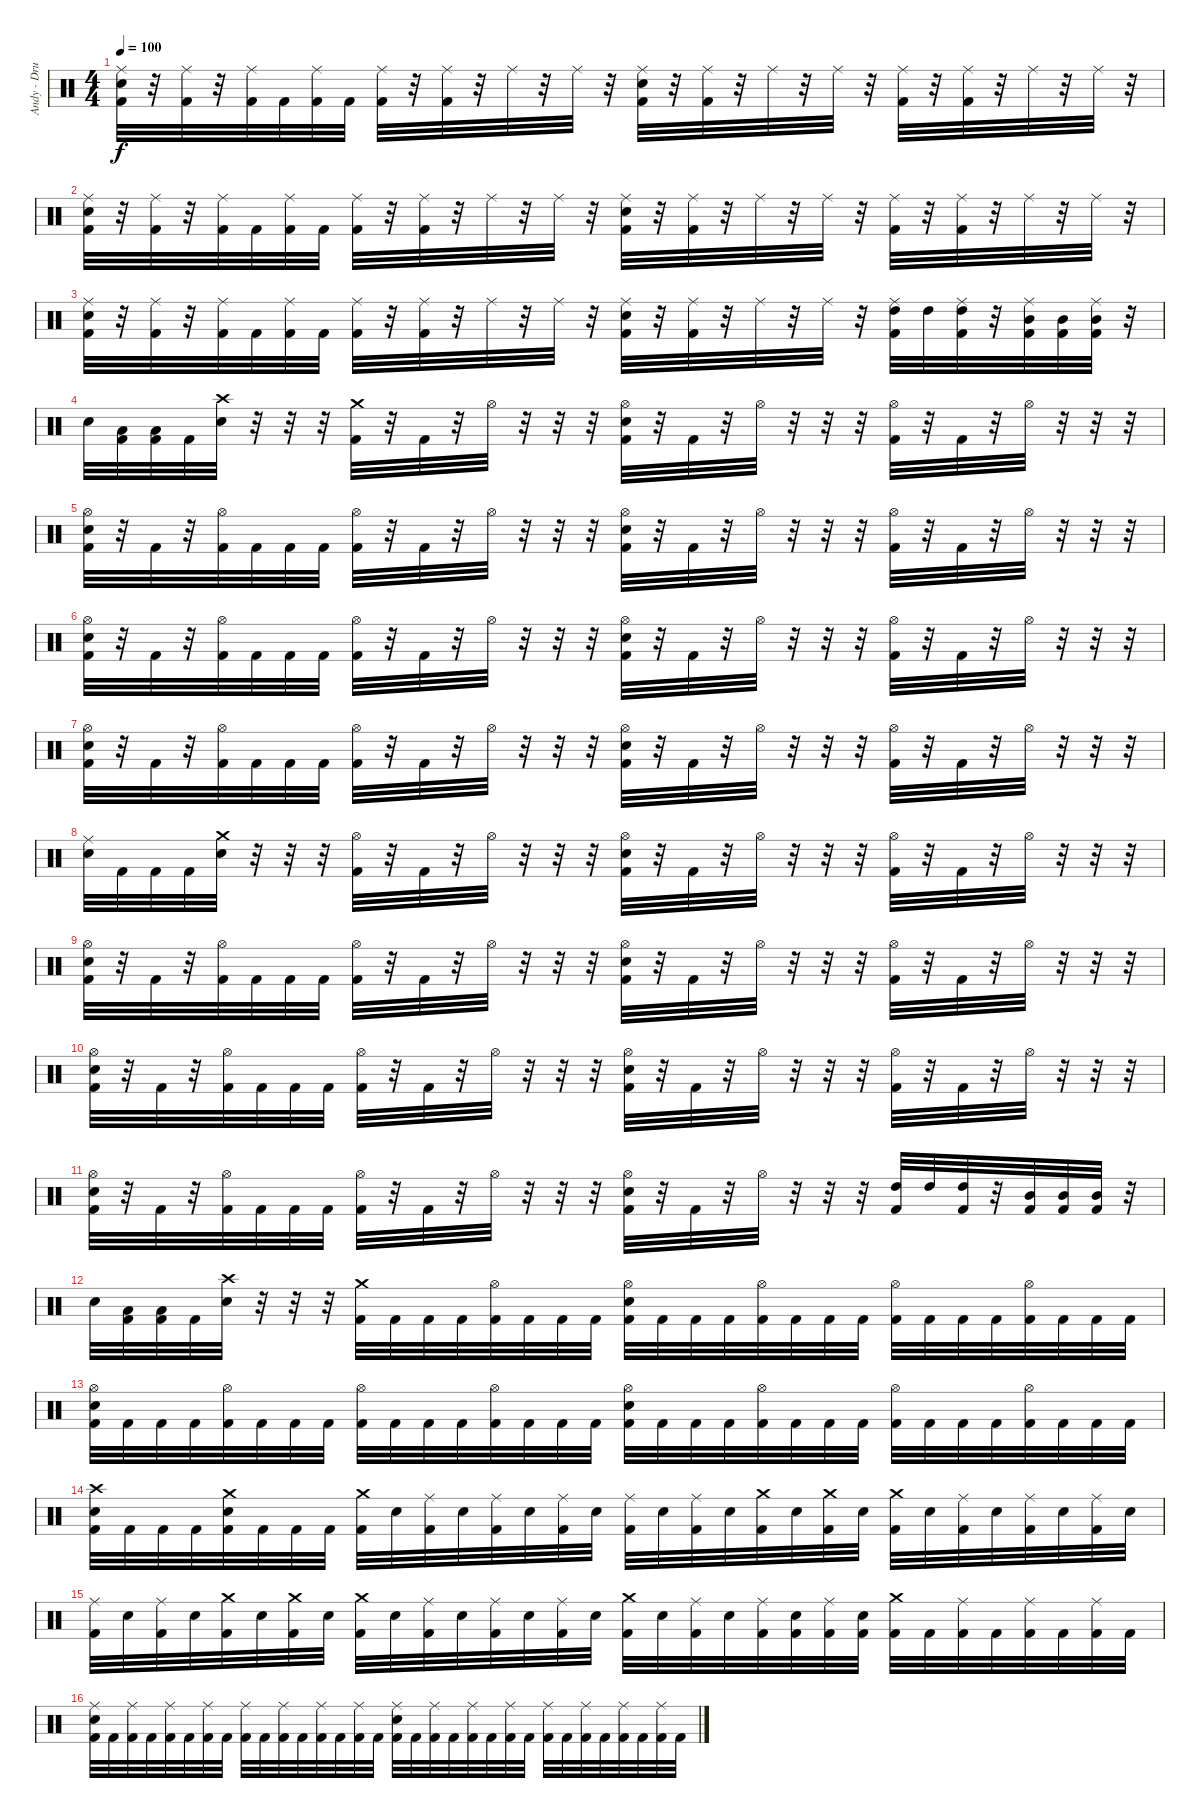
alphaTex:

\track ("Andy - Drums" "Andy - Dru") {instrument percussion}
\staff {score}
\articulation defaults
\ts (4 4)
\tempo 100
\clef neutral
\ks c
("Ride (middle)" "Electric Snare (hit)" "Kick (hit) 2").32{dy f} r.32 ("Ride (middle)" "Kick (hit) 2").32 r.32 ("Ride (middle)" "Kick (hit) 2").32 "Kick (hit) 2".32 ("Ride (middle)" "Kick (hit) 2").32 "Kick (hit) 2".32 ("Ride (middle)" "Kick (hit) 2").32 r.32 ("Ride (middle)" "Kick (hit) 2").32 r.32 "Ride (middle)".32 r.32 "Ride (middle)".32 r.32 ("Ride (middle)" "Electric Snare (hit)" "Kick (hit) 2").32 r.32 ("Ride (middle)" "Kick (hit) 2").32 r.32 "Ride (middle)".32 r.32 "Ride (middle)".32 r.32 ("Ride (middle)" "Kick (hit) 2").32 r.32 ("Ride (middle)" "Kick (hit) 2").32 r.32 "Ride (middle)".32 r.32 "Ride (middle)".32 r.32 |
("Ride (middle)" "Electric Snare (hit)" "Kick (hit) 2").32 r.32 ("Ride (middle)" "Kick (hit) 2").32 r.32 ("Ride (middle)" "Kick (hit) 2").32 "Kick (hit) 2".32 ("Ride (middle)" "Kick (hit) 2").32 "Kick (hit) 2".32 ("Ride (middle)" "Kick (hit) 2").32 r.32 ("Ride (middle)" "Kick (hit) 2").32 r.32 "Ride (middle)".32 r.32 "Ride (middle)".32 r.32 ("Ride (middle)" "Electric Snare (hit)" "Kick (hit) 2").32 r.32 ("Ride (middle)" "Kick (hit) 2").32 r.32 "Ride (middle)".32 r.32 "Ride (middle)".32 r.32 ("Ride (middle)" "Kick (hit) 2").32 r.32 ("Ride (middle)" "Kick (hit) 2").32 r.32 "Ride (middle)".32 r.32 "Ride (middle)".32 r.32 |
("Ride (middle)" "Electric Snare (hit)" "Kick (hit) 2").32 r.32 ("Ride (middle)" "Kick (hit) 2").32 r.32 ("Ride (middle)" "Kick (hit) 2").32 "Kick (hit) 2".32 ("Ride (middle)" "Kick (hit) 2").32 "Kick (hit) 2".32 ("Ride (middle)" "Kick (hit) 2").32 r.32 ("Ride (middle)" "Kick (hit) 2").32 r.32 "Ride (middle)".32 r.32 "Ride (middle)".32 r.32 ("Ride (middle)" "Electric Snare (hit)" "Kick (hit) 2").32 r.32 ("Ride (middle)" "Kick (hit) 2").32 r.32 "Ride (middle)".32 r.32 "Ride (middle)".32 r.32 ("Ride (middle)" "High Tom (hit)" "Kick (hit) 2").32 "High Tom (hit)".32 ("Ride (middle)" "High Tom (hit)" "Kick (hit) 2").32 r.32 ("Ride (middle)" "Mid Tom (hit)" "Kick (hit) 2").32 ("Mid Tom (hit)" "Kick (hit) 2").32 ("Ride (middle)" "Mid Tom (hit)" "Kick (hit) 2").32 r.32 |
"Electric Snare (hit)".32 ("Low Tom (hit)" "Kick (hit) 2").32 ("Low Tom (hit)" "Kick (hit) 2").32 "Kick (hit) 2".32 ("Crash high (hit)" "Electric Snare (hit)").32 r.32 r.32 r.32 ("Crash medium (hit)" "Kick (hit) 2").32 r.32 "Kick (hit) 2".32 r.32 "Hi-Hat (open)".32 r.32 r.32 r.32 ("Hi-Hat (open)" "Electric Snare (hit)" "Kick (hit) 2").32 r.32 "Kick (hit) 2".32 r.32 "Hi-Hat (open)".32 r.32 r.32 r.32 ("Hi-Hat (open)" "Kick (hit) 2").32 r.32 "Kick (hit) 2".32 r.32 "Hi-Hat (open)".32 r.32 r.32 r.32 |
("Hi-Hat (open)" "Electric Snare (hit)" "Kick (hit) 2").32 r.32 "Kick (hit) 2".32 r.32 ("Hi-Hat (open)" "Kick (hit) 2").32 "Kick (hit) 2".32 "Kick (hit) 2".32 "Kick (hit) 2".32 ("Hi-Hat (open)" "Kick (hit) 2").32 r.32 "Kick (hit) 2".32 r.32 "Hi-Hat (open)".32 r.32 r.32 r.32 ("Hi-Hat (open)" "Electric Snare (hit)" "Kick (hit) 2").32 r.32 "Kick (hit) 2".32 r.32 "Hi-Hat (open)".32 r.32 r.32 r.32 ("Hi-Hat (open)" "Kick (hit) 2").32 r.32 "Kick (hit) 2".32 r.32 "Hi-Hat (open)".32 r.32 r.32 r.32 |
("Hi-Hat (open)" "Electric Snare (hit)" "Kick (hit) 2").32 r.32 "Kick (hit) 2".32 r.32 ("Hi-Hat (open)" "Kick (hit) 2").32 "Kick (hit) 2".32 "Kick (hit) 2".32 "Kick (hit) 2".32 ("Hi-Hat (open)" "Kick (hit) 2").32 r.32 "Kick (hit) 2".32 r.32 "Hi-Hat (open)".32 r.32 r.32 r.32 ("Hi-Hat (open)" "Electric Snare (hit)" "Kick (hit) 2").32 r.32 "Kick (hit) 2".32 r.32 "Hi-Hat (open)".32 r.32 r.32 r.32 ("Hi-Hat (open)" "Kick (hit) 2").32 r.32 "Kick (hit) 2".32 r.32 "Hi-Hat (open)".32 r.32 r.32 r.32 |
("Hi-Hat (open)" "Electric Snare (hit)" "Kick (hit) 2").32 r.32 "Kick (hit) 2".32 r.32 ("Hi-Hat (open)" "Kick (hit) 2").32 "Kick (hit) 2".32 "Kick (hit) 2".32 "Kick (hit) 2".32 ("Hi-Hat (open)" "Kick (hit) 2").32 r.32 "Kick (hit) 2".32 r.32 "Hi-Hat (open)".32 r.32 r.32 r.32 ("Hi-Hat (open)" "Electric Snare (hit)" "Kick (hit) 2").32 r.32 "Kick (hit) 2".32 r.32 "Hi-Hat (open)".32 r.32 r.32 r.32 ("Hi-Hat (open)" "Kick (hit) 2").32 r.32 "Kick (hit) 2".32 r.32 "Hi-Hat (open)".32 r.32 r.32 r.32 |
("Ride (middle)" "Electric Snare (hit)").32 "Kick (hit) 2".32 "Kick (hit) 2".32 "Kick (hit) 2".32 ("Crash medium (hit)" "Electric Snare (hit)").32 r.32 r.32 r.32 ("Hi-Hat (open)" "Kick (hit) 2").32 r.32 "Kick (hit) 2".32 r.32 "Hi-Hat (open)".32 r.32 r.32 r.32 ("Hi-Hat (open)" "Electric Snare (hit)" "Kick (hit) 2").32 r.32 "Kick (hit) 2".32 r.32 "Hi-Hat (open)".32 r.32 r.32 r.32 ("Hi-Hat (open)" "Kick (hit) 2").32 r.32 "Kick (hit) 2".32 r.32 "Hi-Hat (open)".32 r.32 r.32 r.32 |
("Hi-Hat (open)" "Electric Snare (hit)" "Kick (hit) 2").32 r.32 "Kick (hit) 2".32 r.32 ("Hi-Hat (open)" "Kick (hit) 2").32 "Kick (hit) 2".32 "Kick (hit) 2".32 "Kick (hit) 2".32 ("Hi-Hat (open)" "Kick (hit) 2").32 r.32 "Kick (hit) 2".32 r.32 "Hi-Hat (open)".32 r.32 r.32 r.32 ("Hi-Hat (open)" "Electric Snare (hit)" "Kick (hit) 2").32 r.32 "Kick (hit) 2".32 r.32 "Hi-Hat (open)".32 r.32 r.32 r.32 ("Hi-Hat (open)" "Kick (hit) 2").32 r.32 "Kick (hit) 2".32 r.32 "Hi-Hat (open)".32 r.32 r.32 r.32 |
("Hi-Hat (open)" "Electric Snare (hit)" "Kick (hit) 2").32 r.32 "Kick (hit) 2".32 r.32 ("Hi-Hat (open)" "Kick (hit) 2").32 "Kick (hit) 2".32 "Kick (hit) 2".32 "Kick (hit) 2".32 ("Hi-Hat (open)" "Kick (hit) 2").32 r.32 "Kick (hit) 2".32 r.32 "Hi-Hat (open)".32 r.32 r.32 r.32 ("Hi-Hat (open)" "Electric Snare (hit)" "Kick (hit) 2").32 r.32 "Kick (hit) 2".32 r.32 "Hi-Hat (open)".32 r.32 r.32 r.32 ("Hi-Hat (open)" "Kick (hit) 2").32 r.32 "Kick (hit) 2".32 r.32 "Hi-Hat (open)".32 r.32 r.32 r.32 |
("Hi-Hat (open)" "Electric Snare (hit)" "Kick (hit) 2").32 r.32 "Kick (hit) 2".32 r.32 ("Hi-Hat (open)" "Kick (hit) 2").32 "Kick (hit) 2".32 "Kick (hit) 2".32 "Kick (hit) 2".32 ("Hi-Hat (open)" "Kick (hit) 2").32 r.32 "Kick (hit) 2".32 r.32 "Hi-Hat (open)".32 r.32 r.32 r.32 ("Hi-Hat (open)" "Electric Snare (hit)" "Kick (hit) 2").32 r.32 "Kick (hit) 2".32 r.32 "Hi-Hat (open)".32 r.32 r.32 r.32 ("High Tom (hit)" "Kick (hit) 2").32 "High Tom (hit)".32 ("High Tom (hit)" "Kick (hit) 2").32 r.32 ("Mid Tom (hit)" "Kick (hit) 2").32 ("Mid Tom (hit)" "Kick (hit) 2").32 ("Mid Tom (hit)" "Kick (hit) 2").32 r.32 |
"Electric Snare (hit)".32 ("Low Tom (hit)" "Kick (hit) 2").32 ("Low Tom (hit)" "Kick (hit) 2").32 "Kick (hit) 2".32 ("Crash high (hit)" "Electric Snare (hit)").32 r.32 r.32 r.32 ("Crash medium (hit)" "Kick (hit) 2").32 "Kick (hit) 2".32 "Kick (hit) 2".32 "Kick (hit) 2".32 ("Hi-Hat (open)" "Kick (hit) 2").32 "Kick (hit) 2".32 "Kick (hit) 2".32 "Kick (hit) 2".32 ("Hi-Hat (open)" "Electric Snare (hit)" "Kick (hit) 2").32 "Kick (hit) 2".32 "Kick (hit) 2".32 "Kick (hit) 2".32 ("Hi-Hat (open)" "Kick (hit) 2").32 "Kick (hit) 2".32 "Kick (hit) 2".32 "Kick (hit) 2".32 ("Hi-Hat (open)" "Kick (hit) 2").32 "Kick (hit) 2".32 "Kick (hit) 2".32 "Kick (hit) 2".32 ("Hi-Hat (open)" "Kick (hit) 2").32 "Kick (hit) 2".32 "Kick (hit) 2".32 "Kick (hit) 2".32 |
("Hi-Hat (open)" "Electric Snare (hit)" "Kick (hit) 2").32 "Kick (hit) 2".32 "Kick (hit) 2".32 "Kick (hit) 2".32 ("Hi-Hat (open)" "Kick (hit) 2").32 "Kick (hit) 2".32 "Kick (hit) 2".32 "Kick (hit) 2".32 ("Hi-Hat (open)" "Kick (hit) 2").32 "Kick (hit) 2".32 "Kick (hit) 2".32 "Kick (hit) 2".32 ("Hi-Hat (open)" "Kick (hit) 2").32 "Kick (hit) 2".32 "Kick (hit) 2".32 "Kick (hit) 2".32 ("Hi-Hat (open)" "Electric Snare (hit)" "Kick (hit) 2").32 "Kick (hit) 2".32 "Kick (hit) 2".32 "Kick (hit) 2".32 ("Hi-Hat (open)" "Kick (hit) 2").32 "Kick (hit) 2".32 "Kick (hit) 2".32 "Kick (hit) 2".32 ("Hi-Hat (open)" "Kick (hit) 2").32 "Kick (hit) 2".32 "Kick (hit) 2".32 "Kick (hit) 2".32 ("Hi-Hat (open)" "Kick (hit) 2").32 "Kick (hit) 2".32 "Kick (hit) 2".32 "Kick (hit) 2".32 |
("Crash high (hit)" "Electric Snare (hit)" "Kick (hit) 2").32 "Kick (hit) 2".32 "Kick (hit) 2".32 "Kick (hit) 2".32 ("Crash medium (hit)" "Electric Snare (hit)" "Kick (hit) 2").32 "Kick (hit) 2".32 "Kick (hit) 2".32 "Kick (hit) 2".32 ("Crash medium (hit)" "Kick (hit) 2").32 "Electric Snare (hit)".32 ("Ride (middle)" "Kick (hit) 2").32 "Electric Snare (hit)".32 ("Ride (middle)" "Kick (hit) 2").32 "Electric Snare (hit)".32 ("Ride (middle)" "Kick (hit) 2").32 "Electric Snare (hit)".32 ("Ride (middle)" "Kick (hit) 2").32 "Electric Snare (hit)".32 ("Ride (middle)" "Kick (hit) 2").32 "Electric Snare (hit)".32 ("Crash medium (hit)" "Kick (hit) 2").32 "Electric Snare (hit)".32 ("Crash medium (hit)" "Kick (hit) 2").32 "Electric Snare (hit)".32 ("Crash medium (hit)" "Kick (hit) 2").32 "Electric Snare (hit)".32 ("Ride (middle)" "Kick (hit) 2").32 "Electric Snare (hit)".32 ("Ride (middle)" "Kick (hit) 2").32 "Electric Snare (hit)".32 ("Ride (middle)" "Kick (hit) 2").32 "Electric Snare (hit)".32 |
("Ride (middle)" "Kick (hit) 2").32 "Electric Snare (hit)".32 ("Ride (middle)" "Kick (hit) 2").32 "Electric Snare (hit)".32 ("Crash medium (hit)" "Kick (hit) 2").32 "Electric Snare (hit)".32 ("Crash medium (hit)" "Kick (hit) 2").32 "Electric Snare (hit)".32 ("Crash medium (hit)" "Kick (hit) 2").32 "Electric Snare (hit)".32 ("Ride (middle)" "Kick (hit) 2").32 "Electric Snare (hit)".32 ("Ride (middle)" "Kick (hit) 2").32 "Electric Snare (hit)".32 ("Ride (middle)" "Kick (hit) 2").32 "Electric Snare (hit)".32 ("Crash medium (hit)" "Kick (hit) 2").32 "Electric Snare (hit)".32 ("Ride (middle)" "Kick (hit) 2").32 "Electric Snare (hit)".32 ("Ride (middle)" "Kick (hit) 2").32 ("Electric Snare (hit)" "Kick (hit) 2").32 ("Ride (middle)" "Kick (hit) 2").32 ("Electric Snare (hit)" "Kick (hit) 2").32 ("Crash medium (hit)" "Kick (hit) 2").32 "Kick (hit) 2".32 ("Ride (middle)" "Kick (hit) 2").32 "Kick (hit) 2".32 ("Ride (middle)" "Kick (hit) 2").32 "Kick (hit) 2".32 ("Ride (middle)" "Kick (hit) 2").32 "Kick (hit) 2".32 |
("Ride (middle)" "Electric Snare (hit)" "Kick (hit) 2").32 "Kick (hit) 2".32 ("Ride (middle)" "Kick (hit) 2").32 "Kick (hit) 2".32 ("Ride (middle)" "Kick (hit) 2").32 "Kick (hit) 2".32 ("Ride (middle)" "Kick (hit) 2").32 "Kick (hit) 2".32 ("Ride (middle)" "Kick (hit) 2").32 "Kick (hit) 2".32 ("Ride (middle)" "Kick (hit) 2").32 "Kick (hit) 2".32 ("Ride (middle)" "Kick (hit) 2").32 "Kick (hit) 2".32 ("Ride (middle)" "Kick (hit) 2").32 "Kick (hit) 2".32 ("Ride (middle)" "Electric Snare (hit)" "Kick (hit) 2").32 "Kick (hit) 2".32 ("Ride (middle)" "Kick (hit) 2").32 "Kick (hit) 2".32 ("Ride (middle)" "Kick (hit) 2").32 "Kick (hit) 2".32 ("Ride (middle)" "Kick (hit) 2").32 "Kick (hit) 2".32 ("Ride (middle)" "Kick (hit) 2").32 "Kick (hit) 2".32 ("Ride (middle)" "Kick (hit) 2").32 "Kick (hit) 2".32 ("Ride (middle)" "Kick (hit) 2").32 "Kick (hit) 2".32 ("Ride (middle)" "Kick (hit) 2").32 "Kick (hit) 2".32
